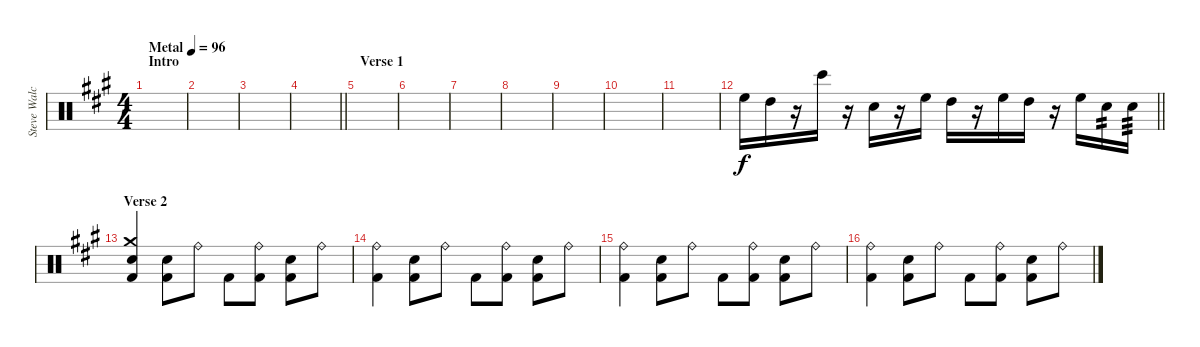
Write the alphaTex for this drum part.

\track ("Steve Walchoz" "Steve Walc") {instrument percussion}
\staff {score}
\articulation defaults
\ts (4 4)
\section ("" "Intro")
\tempo (96 "Metal")
\clef neutral
\ks a
|
|
|
\barLineRight lightlight
|
\section ("" "Verse 1")
|
|
|
|
|
|
|
\barLineRight lightlight "High Floor Tom (hit)".16 "High Tom (hit)".16
r.16 "Bongo High (hit)".16 r.16 "Electric Snare (hit)".16 r.16 "High Floor Tom (hit)".16 "High Tom (hit)".16 r.16 "High Floor Tom (hit)".16 "High Tom (hit)".16 r.16 "High Floor Tom (hit)".16 "Snare (hit) 2".16{tp 2} "Snare (hit) 2".16{tp 3} |
\section ("" "Verse 2")
("Crash medium (hit)" "Snare (hit) 2" "Kick (hit) 2").4 ("Snare (hit) 2" "Kick (hit) 2").8 "Ride (bell)".8 "Kick (hit) 2".8 ("Ride (bell)" "Kick (hit) 2").8 ("Snare (hit) 2" "Kick (hit) 2").8 "Ride (bell)".8 |
("Ride (bell)" "Kick (hit) 2").4 ("Snare (hit) 2" "Kick (hit) 2").8 "Ride (bell)".8 "Kick (hit) 2".8 ("Ride (bell)" "Kick (hit) 2").8 ("Snare (hit) 2" "Kick (hit) 2").8 "Ride (bell)".8 |
("Ride (bell)" "Kick (hit) 2").4 ("Snare (hit) 2" "Kick (hit) 2").8 "Ride (bell)".8 "Kick (hit) 2".8 ("Ride (bell)" "Kick (hit) 2").8 ("Snare (hit) 2" "Kick (hit) 2").8 "Ride (bell)".8 |
("Ride (bell)" "Kick (hit) 2").4 ("Snare (hit) 2" "Kick (hit) 2").8 "Ride (bell)".8 "Kick (hit) 2".8 ("Ride (bell)" "Kick (hit) 2").8 ("Snare (hit) 2" "Kick (hit) 2").8 "Ride (bell)".8
